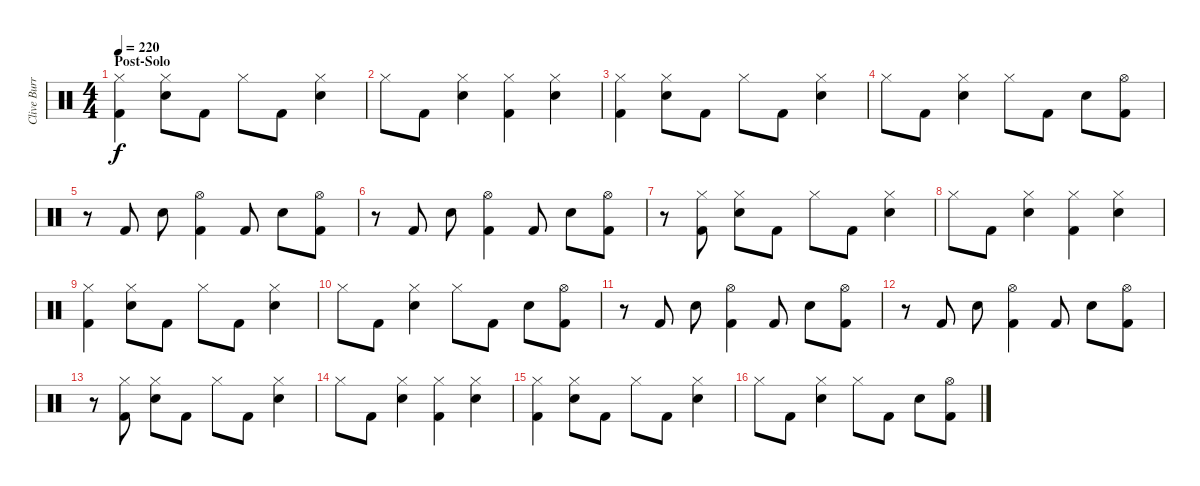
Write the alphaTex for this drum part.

\track ("Clive Burr (Drums)" "Clive Burr") {instrument percussion}
\staff {score}
\articulation defaults
\ts (4 4)
\section ("" "Post-Solo")
\tempo 220
\clef neutral
\ks c
("Hi-Hat (closed)" "Kick (hit) 2").4{dy f} ("Electric Snare (hit)" "Hi-Hat (closed)").8 "Kick (hit) 2".8 "Hi-Hat (closed)".8 "Kick (hit) 2".8 ("Electric Snare (hit)" "Hi-Hat (closed)").4 |
"Hi-Hat (closed)".8 "Kick (hit) 2".8 ("Electric Snare (hit)" "Hi-Hat (closed)").4 ("Hi-Hat (closed)" "Kick (hit) 2").4 ("Electric Snare (hit)" "Hi-Hat (closed)").4 |
("Hi-Hat (closed)" "Kick (hit) 2").4 ("Electric Snare (hit)" "Hi-Hat (closed)").8 "Kick (hit) 2".8 "Hi-Hat (closed)".8 "Kick (hit) 2".8 ("Electric Snare (hit)" "Hi-Hat (closed)").4 |
"Hi-Hat (closed)".8 "Kick (hit) 2".8 ("Electric Snare (hit)" "Hi-Hat (closed)").4 "Hi-Hat (closed)".8 "Kick (hit) 2".8 "Electric Snare (hit)".8 ("Hi-Hat (open)" "Kick (hit) 2").8 |
r.8 "Kick (hit) 2".8 "Electric Snare (hit)".8 ("Hi-Hat (open)" "Kick (hit) 2").4 "Kick (hit) 2".8 "Electric Snare (hit)".8 ("Hi-Hat (open)" "Kick (hit) 2").8 |
r.8 "Kick (hit) 2".8 "Electric Snare (hit)".8 ("Hi-Hat (open)" "Kick (hit) 2").4 "Kick (hit) 2".8 "Electric Snare (hit)".8 ("Hi-Hat (open)" "Kick (hit) 2").8 |
r.8 ("Hi-Hat (closed)" "Kick (hit) 2").8 ("Electric Snare (hit)" "Hi-Hat (closed)").8 "Kick (hit) 2".8 "Hi-Hat (closed)".8 "Kick (hit) 2".8 ("Electric Snare (hit)" "Hi-Hat (closed)").4 |
"Hi-Hat (closed)".8 "Kick (hit) 2".8 ("Electric Snare (hit)" "Hi-Hat (closed)").4 ("Hi-Hat (closed)" "Kick (hit) 2").4 ("Electric Snare (hit)" "Hi-Hat (closed)").4 |
("Hi-Hat (closed)" "Kick (hit) 2").4 ("Electric Snare (hit)" "Hi-Hat (closed)").8 "Kick (hit) 2".8 "Hi-Hat (closed)".8 "Kick (hit) 2".8 ("Electric Snare (hit)" "Hi-Hat (closed)").4 |
"Hi-Hat (closed)".8 "Kick (hit) 2".8 ("Electric Snare (hit)" "Hi-Hat (closed)").4 "Hi-Hat (closed)".8 "Kick (hit) 2".8 "Electric Snare (hit)".8 ("Hi-Hat (open)" "Kick (hit) 2").8 |
r.8 "Kick (hit) 2".8 "Electric Snare (hit)".8 ("Hi-Hat (open)" "Kick (hit) 2").4 "Kick (hit) 2".8 "Electric Snare (hit)".8 ("Hi-Hat (open)" "Kick (hit) 2").8 |
r.8 "Kick (hit) 2".8 "Electric Snare (hit)".8 ("Hi-Hat (open)" "Kick (hit) 2").4 "Kick (hit) 2".8 "Electric Snare (hit)".8 ("Hi-Hat (open)" "Kick (hit) 2").8 |
r.8 ("Hi-Hat (closed)" "Kick (hit) 2").8 ("Electric Snare (hit)" "Hi-Hat (closed)").8 "Kick (hit) 2".8 "Hi-Hat (closed)".8 "Kick (hit) 2".8 ("Electric Snare (hit)" "Hi-Hat (closed)").4 |
"Hi-Hat (closed)".8 "Kick (hit) 2".8 ("Electric Snare (hit)" "Hi-Hat (closed)").4 ("Hi-Hat (closed)" "Kick (hit) 2").4 ("Electric Snare (hit)" "Hi-Hat (closed)").4 |
("Hi-Hat (closed)" "Kick (hit) 2").4 ("Electric Snare (hit)" "Hi-Hat (closed)").8 "Kick (hit) 2".8 "Hi-Hat (closed)".8 "Kick (hit) 2".8 ("Electric Snare (hit)" "Hi-Hat (closed)").4 |
"Hi-Hat (closed)".8 "Kick (hit) 2".8 ("Electric Snare (hit)" "Hi-Hat (closed)").4 "Hi-Hat (closed)".8 "Kick (hit) 2".8 "Electric Snare (hit)".8 ("Hi-Hat (open)" "Kick (hit) 2").8
